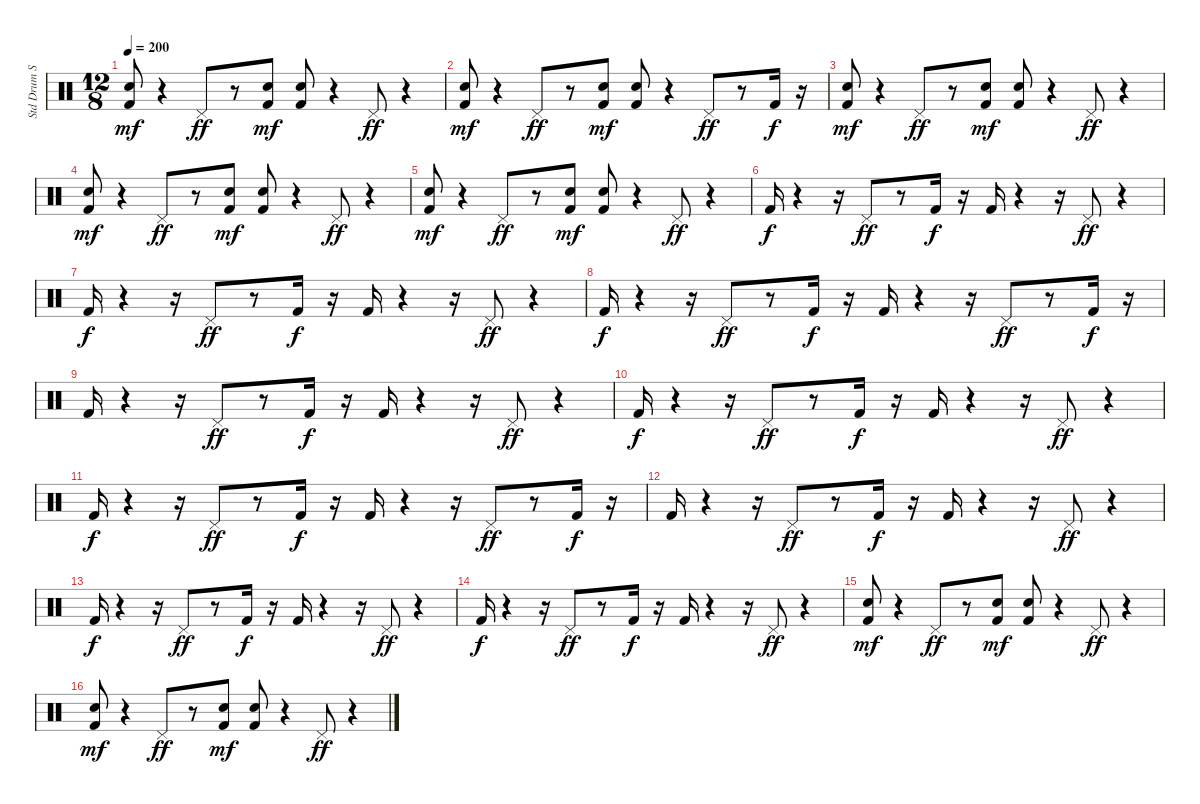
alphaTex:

\track ("Std Drum Set" "Std Drum S") {instrument percussion}
\staff {score}
\articulation defaults
\ts (12 8)
\tempo 200
\clef neutral
\ks c
("Kick (hit) 2" "Hand Clap (hit)").8{dy mf} r.4 "Pedal Hi-Hat (hit)".8{dy ff} r.8 ("Kick (hit) 2" "Hand Clap (hit)").8{dy mf} ("Kick (hit) 2" "Hand Clap (hit)").8 r.4 "Pedal Hi-Hat (hit)".8{dy ff} r.4 |
("Kick (hit) 2" "Hand Clap (hit)").8{dy mf} r.4 "Pedal Hi-Hat (hit)".8{dy ff} r.8 ("Kick (hit) 2" "Hand Clap (hit)").8{dy mf} ("Kick (hit) 2" "Hand Clap (hit)").8 r.4 "Pedal Hi-Hat (hit)".8{dy ff} r.8 "Kick (hit) 2".16{dy f} r.16 |
("Kick (hit) 2" "Hand Clap (hit)").8{dy mf} r.4 "Pedal Hi-Hat (hit)".8{dy ff} r.8 ("Kick (hit) 2" "Hand Clap (hit)").8{dy mf} ("Kick (hit) 2" "Hand Clap (hit)").8 r.4 "Pedal Hi-Hat (hit)".8{dy ff} r.4 |
("Kick (hit) 2" "Hand Clap (hit)").8{dy mf} r.4 "Pedal Hi-Hat (hit)".8{dy ff} r.8 ("Kick (hit) 2" "Hand Clap (hit)").8{dy mf} ("Kick (hit) 2" "Hand Clap (hit)").8 r.4 "Pedal Hi-Hat (hit)".8{dy ff} r.4 |
("Kick (hit) 2" "Hand Clap (hit)").8{dy mf} r.4 "Pedal Hi-Hat (hit)".8{dy ff} r.8 ("Kick (hit) 2" "Hand Clap (hit)").8{dy mf} ("Kick (hit) 2" "Hand Clap (hit)").8 r.4 "Pedal Hi-Hat (hit)".8{dy ff} r.4 |
"Kick (hit) 2".16{dy f} r.4 r.16 "Pedal Hi-Hat (hit)".8{dy ff} r.8 "Kick (hit) 2".16{dy f} r.16 "Kick (hit) 2".16 r.4 r.16 "Pedal Hi-Hat (hit)".8{dy ff} r.4 |
"Kick (hit) 2".16{dy f} r.4 r.16 "Pedal Hi-Hat (hit)".8{dy ff} r.8 "Kick (hit) 2".16{dy f} r.16 "Kick (hit) 2".16 r.4 r.16 "Pedal Hi-Hat (hit)".8{dy ff} r.4 |
"Kick (hit) 2".16{dy f} r.4 r.16 "Pedal Hi-Hat (hit)".8{dy ff} r.8 "Kick (hit) 2".16{dy f} r.16 "Kick (hit) 2".16 r.4 r.16 "Pedal Hi-Hat (hit)".8{dy ff} r.8 "Kick (hit) 2".16{dy f} r.16 |
"Kick (hit) 2".16 r.4 r.16 "Pedal Hi-Hat (hit)".8{dy ff} r.8 "Kick (hit) 2".16{dy f} r.16 "Kick (hit) 2".16 r.4 r.16 "Pedal Hi-Hat (hit)".8{dy ff} r.4 |
"Kick (hit) 2".16{dy f} r.4 r.16 "Pedal Hi-Hat (hit)".8{dy ff} r.8 "Kick (hit) 2".16{dy f} r.16 "Kick (hit) 2".16 r.4 r.16 "Pedal Hi-Hat (hit)".8{dy ff} r.4 |
"Kick (hit) 2".16{dy f} r.4 r.16 "Pedal Hi-Hat (hit)".8{dy ff} r.8 "Kick (hit) 2".16{dy f} r.16 "Kick (hit) 2".16 r.4 r.16 "Pedal Hi-Hat (hit)".8{dy ff} r.8 "Kick (hit) 2".16{dy f} r.16 |
"Kick (hit) 2".16 r.4 r.16 "Pedal Hi-Hat (hit)".8{dy ff} r.8 "Kick (hit) 2".16{dy f} r.16 "Kick (hit) 2".16 r.4 r.16 "Pedal Hi-Hat (hit)".8{dy ff} r.4 |
"Kick (hit) 2".16{dy f} r.4 r.16 "Pedal Hi-Hat (hit)".8{dy ff} r.8 "Kick (hit) 2".16{dy f} r.16 "Kick (hit) 2".16 r.4 r.16 "Pedal Hi-Hat (hit)".8{dy ff} r.4 |
"Kick (hit) 2".16{dy f} r.4 r.16 "Pedal Hi-Hat (hit)".8{dy ff} r.8 "Kick (hit) 2".16{dy f} r.16 "Kick (hit) 2".16 r.4 r.16 "Pedal Hi-Hat (hit)".8{dy ff} r.4 |
("Kick (hit) 2" "Hand Clap (hit)").8{dy mf} r.4 "Pedal Hi-Hat (hit)".8{dy ff} r.8 ("Kick (hit) 2" "Hand Clap (hit)").8{dy mf} ("Kick (hit) 2" "Hand Clap (hit)").8 r.4 "Pedal Hi-Hat (hit)".8{dy ff} r.4 |
("Kick (hit) 2" "Hand Clap (hit)").8{dy mf} r.4 "Pedal Hi-Hat (hit)".8{dy ff} r.8 ("Kick (hit) 2" "Hand Clap (hit)").8{dy mf} ("Kick (hit) 2" "Hand Clap (hit)").8 r.4 "Pedal Hi-Hat (hit)".8{dy ff} r.4
